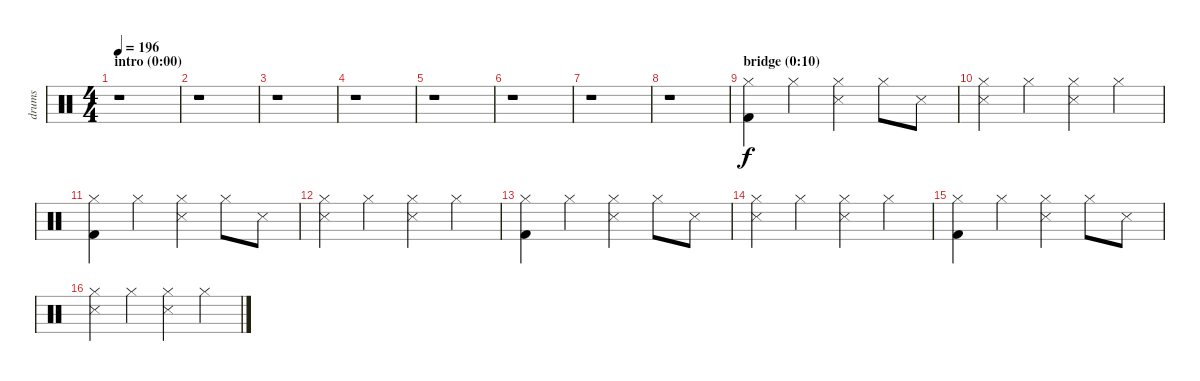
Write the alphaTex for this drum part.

\track ("drums" "drums") {instrument percussion}
\staff {score}
\articulation defaults
\ts (4 4)
\section ("" "intro (0:00)")
\tempo 196
\clef neutral
\ks c
r.1{dy f} |
r.1 |
r.1 |
r.1 |
r.1 |
r.1 |
r.1 |
r.1 |
\section ("" "bridge (0:10)")
("Hi-Hat (closed)" "Kick (hit) 2").4 "Hi-Hat (closed)".4 ("Hi-Hat (closed)" "Snare (side stick) 3").4 "Hi-Hat (closed)".8 "Snare (side stick) 3".8 |
("Hi-Hat (closed)" "Snare (side stick) 3").4 "Hi-Hat (closed)".4 ("Hi-Hat (closed)" "Snare (side stick) 3").4 "Hi-Hat (closed)".4 |
("Hi-Hat (closed)" "Kick (hit) 2").4 "Hi-Hat (closed)".4 ("Hi-Hat (closed)" "Snare (side stick) 3").4 "Hi-Hat (closed)".8 "Snare (side stick) 3".8 |
("Hi-Hat (closed)" "Snare (side stick) 3").4 "Hi-Hat (closed)".4 ("Hi-Hat (closed)" "Snare (side stick) 3").4 "Hi-Hat (closed)".4 |
("Hi-Hat (closed)" "Kick (hit) 2").4 "Hi-Hat (closed)".4 ("Hi-Hat (closed)" "Snare (side stick) 3").4 "Hi-Hat (closed)".8 "Snare (side stick) 3".8 |
("Hi-Hat (closed)" "Snare (side stick) 3").4 "Hi-Hat (closed)".4 ("Hi-Hat (closed)" "Snare (side stick) 3").4 "Hi-Hat (closed)".4 |
("Hi-Hat (closed)" "Kick (hit) 2").4 "Hi-Hat (closed)".4 ("Hi-Hat (closed)" "Snare (side stick) 3").4 "Hi-Hat (closed)".8 "Snare (side stick) 3".8 |
("Hi-Hat (closed)" "Snare (side stick) 3").4 "Hi-Hat (closed)".4 ("Hi-Hat (closed)" "Snare (side stick) 3").4 "Hi-Hat (closed)".4
